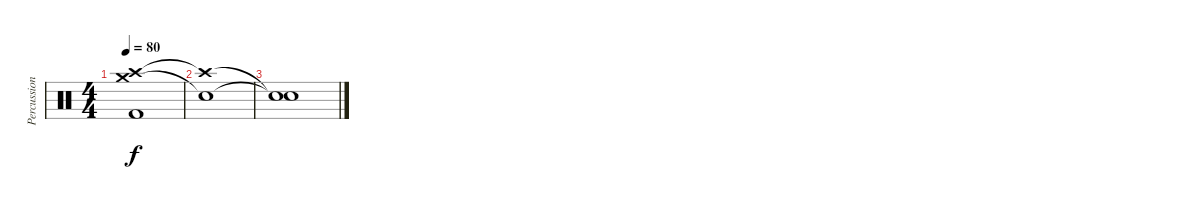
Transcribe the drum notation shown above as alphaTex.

\track ("Percussions" "Percussion") {instrument percussion}
\staff {score}
\articulation defaults
\ts (4 4)
\tempo 80
\clef neutral
\ks c
("Crash high (hit)" "Crash medium (hit)" "Kick (hit) 2").1{dy f} |
("Crash high (hit)"{t} "Snare (hit)"{t}).1 |
("Snare (hit)"{t} "Snare (hit)"{t}).1
